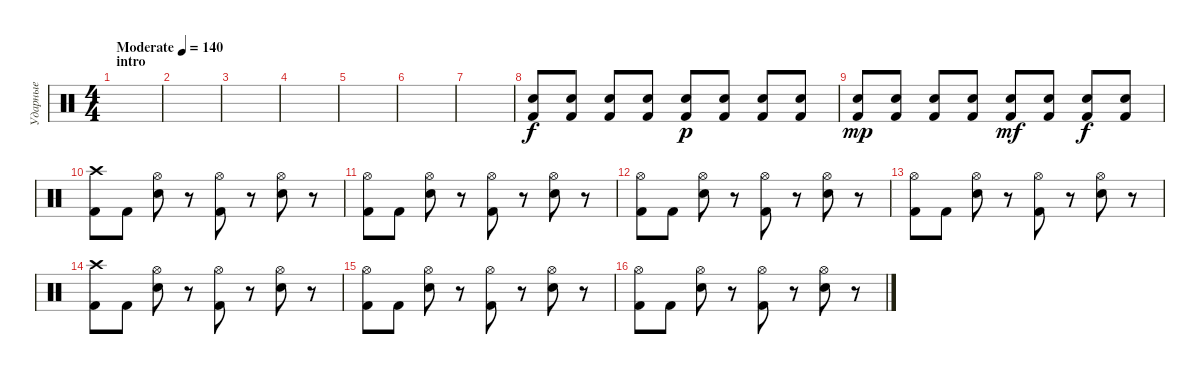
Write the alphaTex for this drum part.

\track ("Ударные" "Ударные") {instrument percussion}
\staff {score}
\articulation defaults
\ts (4 4)
\section ("" "intro")
\tempo (140 "Moderate")
\clef neutral
\ks c
|
|
|
|
|
|
|
("Snare (hit) 2" "Kick (hit) 2").8 ("Snare (hit) 2" "Kick (hit) 2").8 ("Snare (hit) 2" "Kick (hit) 2").8 ("Snare (hit) 2" "Kick (hit) 2").8 ("Snare (hit) 2" "Kick (hit) 2").8{dy p} ("Snare (hit) 2" "Kick (hit) 2").8 ("Snare (hit) 2" "Kick (hit) 2").8 ("Snare (hit) 2" "Kick (hit) 2").8 |
("Snare (hit) 2" "Kick (hit) 2").8{dy mp} ("Snare (hit) 2" "Kick (hit) 2").8 ("Snare (hit) 2" "Kick (hit) 2").8 ("Snare (hit) 2" "Kick (hit) 2").8 ("Snare (hit) 2" "Kick (hit) 2").8{dy mf} ("Snare (hit) 2" "Kick (hit) 2").8 ("Snare (hit) 2" "Kick (hit) 2").8{dy f} ("Snare (hit) 2" "Kick (hit) 2").8 |
("Crash high (hit)" "Kick (hit) 2").8 "Kick (hit) 2".8 ("Hi-Hat (open)" "Snare (hit) 2").8 r.8 ("Hi-Hat (open)" "Kick (hit) 2").8 r.8 ("Hi-Hat (open)" "Snare (hit) 2").8 r.8 |
("Hi-Hat (open)" "Kick (hit) 2").8 "Kick (hit) 2".8 ("Hi-Hat (open)" "Snare (hit) 2").8 r.8 ("Hi-Hat (open)" "Kick (hit) 2").8 r.8 ("Hi-Hat (open)" "Snare (hit) 2").8 r.8 |
("Hi-Hat (open)" "Kick (hit) 2").8 "Kick (hit) 2".8 ("Hi-Hat (open)" "Snare (hit) 2").8 r.8 ("Hi-Hat (open)" "Kick (hit) 2").8 r.8 ("Hi-Hat (open)" "Snare (hit) 2").8 r.8 |
("Hi-Hat (open)" "Kick (hit) 2").8 "Kick (hit) 2".8 ("Hi-Hat (open)" "Snare (hit) 2").8 r.8 ("Hi-Hat (open)" "Kick (hit) 2").8 r.8 ("Hi-Hat (open)" "Snare (hit) 2").8 r.8 |
("Crash high (hit)" "Kick (hit) 2").8 "Kick (hit) 2".8 ("Hi-Hat (open)" "Snare (hit) 2").8 r.8 ("Hi-Hat (open)" "Kick (hit) 2").8 r.8 ("Hi-Hat (open)" "Snare (hit) 2").8 r.8 |
("Hi-Hat (open)" "Kick (hit) 2").8 "Kick (hit) 2".8 ("Hi-Hat (open)" "Snare (hit) 2").8 r.8 ("Hi-Hat (open)" "Kick (hit) 2").8 r.8 ("Hi-Hat (open)" "Snare (hit) 2").8 r.8 |
("Hi-Hat (open)" "Kick (hit) 2").8 "Kick (hit) 2".8 ("Hi-Hat (open)" "Snare (hit) 2").8 r.8 ("Hi-Hat (open)" "Kick (hit) 2").8 r.8 ("Hi-Hat (open)" "Snare (hit) 2").8 r.8
